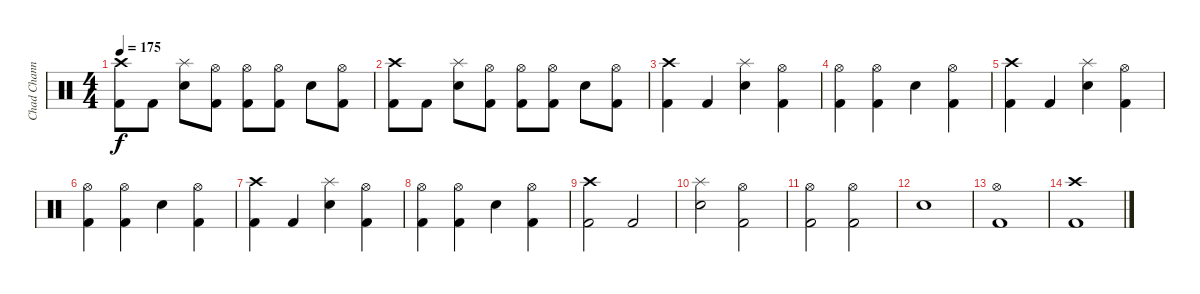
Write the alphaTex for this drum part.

\track ("Chad Channing" "Chad Chann") {instrument percussion}
\staff {score}
\articulation defaults
\ts (4 4)
\tempo 175
\clef neutral
\ks c
("Crash high (hit)" "Kick (hit) 2").8{dy f} "Kick (hit) 2".8 ("Splash (hit)" "Snare (hit) 2").8 ("Hi-Hat (open)" "Kick (hit) 2").8 ("Hi-Hat (open)" "Kick (hit) 2").8 ("Hi-Hat (open)" "Kick (hit) 2").8 "Snare (hit) 2".8 ("Hi-Hat (open)" "Kick (hit) 2").8 |
("Crash high (hit)" "Kick (hit) 2").8 "Kick (hit) 2".8 ("Splash (hit)" "Snare (hit) 2").8 ("Hi-Hat (open)" "Kick (hit) 2").8 ("Hi-Hat (open)" "Kick (hit) 2").8 ("Hi-Hat (open)" "Kick (hit) 2").8 "Snare (hit) 2".8 ("Hi-Hat (open)" "Kick (hit) 2").8 |
("Crash high (hit)" "Kick (hit) 2").4 "Kick (hit) 2".4 ("Splash (hit)" "Snare (hit) 2").4 ("Hi-Hat (open)" "Kick (hit) 2").4 |
("Hi-Hat (open)" "Kick (hit) 2").4 ("Hi-Hat (open)" "Kick (hit) 2").4 "Snare (hit) 2".4 ("Hi-Hat (open)" "Kick (hit) 2").4 |
("Crash high (hit)" "Kick (hit) 2").4 "Kick (hit) 2".4 ("Splash (hit)" "Snare (hit) 2").4 ("Hi-Hat (open)" "Kick (hit) 2").4 |
("Hi-Hat (open)" "Kick (hit) 2").4 ("Hi-Hat (open)" "Kick (hit) 2").4 "Snare (hit) 2".4 ("Hi-Hat (open)" "Kick (hit) 2").4 |
("Crash high (hit)" "Kick (hit) 2").4 "Kick (hit) 2".4 ("Splash (hit)" "Snare (hit) 2").4 ("Hi-Hat (open)" "Kick (hit) 2").4 |
("Hi-Hat (open)" "Kick (hit) 2").4 ("Hi-Hat (open)" "Kick (hit) 2").4 "Snare (hit) 2".4 ("Hi-Hat (open)" "Kick (hit) 2").4 |
("Crash high (hit)" "Kick (hit) 2").2 "Kick (hit) 2".2 |
("Splash (hit)" "Snare (hit) 2").2 ("Hi-Hat (open)" "Kick (hit) 2").2 |
("Hi-Hat (open)" "Kick (hit) 2").2 ("Hi-Hat (open)" "Kick (hit) 2").2 |
"Snare (hit) 2".1 |
("Hi-Hat (open)" "Kick (hit) 2").1 |
("Crash high (hit)" "Kick (hit) 2").1
